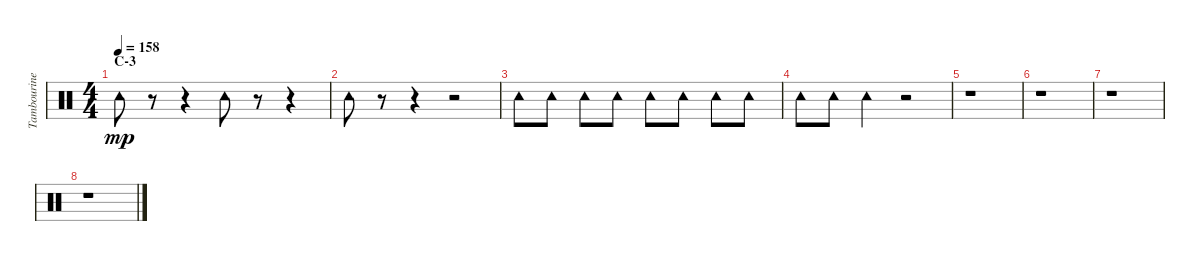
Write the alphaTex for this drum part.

\track ("Tambourine" "Tambourine") {instrument percussion}
\staff {score}
\articulation defaults
\ts (4 4)
\section ("" "C-3")
\tempo 158
\clef neutral
\ks c "Tambourine (hit)".8{dy mp}
r.8 r.4 "Tambourine (hit)".8 r.8 r.4 |
"Tambourine (hit)".8 r.8 r.4 r.2 |
"Tambourine (hit)".8 "Tambourine (hit)".8 "Tambourine (hit)".8 "Tambourine (hit)".8 "Tambourine (hit)".8 "Tambourine (hit)".8 "Tambourine (hit)".8 "Tambourine (hit)".8 |
"Tambourine (hit)".8 "Tambourine (hit)".8 "Tambourine (hit)".4 r.2 |
r.1 |
r.1 |
r.1 |
r.1
